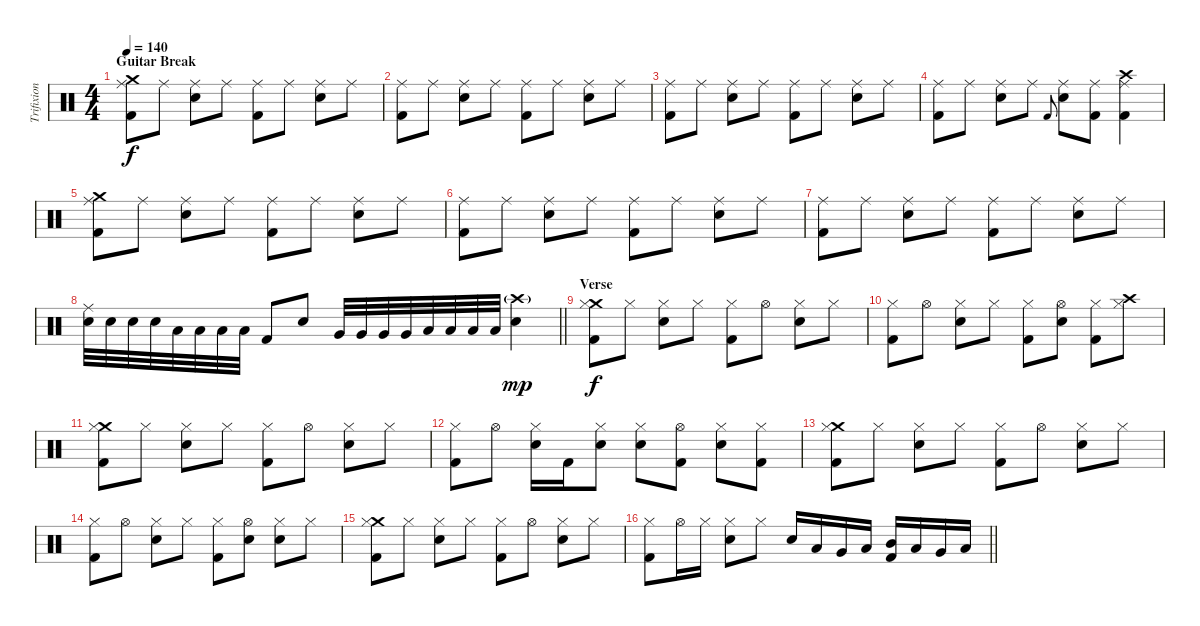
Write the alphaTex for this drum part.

\track ("Trifixion of the Horned King" "Trifixion ") {instrument percussion}
\staff {score}
\articulation defaults
\ts (4 4)
\section ("" "Guitar Break")
\tempo 140
\clef neutral
\ks c
("Crash medium (hit)" "Ride (middle)" "Kick (hit) 2").8{dy f} "Ride (middle)".8 ("Ride (middle)" "Electric Snare (hit)").8 "Ride (middle)".8 ("Ride (middle)" "Kick (hit) 2").8 "Ride (middle)".8 ("Ride (middle)" "Electric Snare (hit)").8 "Ride (middle)".8 |
("Ride (middle)" "Kick (hit) 2").8 "Ride (middle)".8 ("Ride (middle)" "Electric Snare (hit)").8 "Ride (middle)".8 ("Ride (middle)" "Kick (hit) 2").8 "Ride (middle)".8 ("Ride (middle)" "Electric Snare (hit)").8 "Ride (middle)".8 |
("Ride (middle)" "Kick (hit) 2").8 "Ride (middle)".8 ("Ride (middle)" "Electric Snare (hit)").8 "Ride (middle)".8 ("Ride (middle)" "Kick (hit) 2").8 "Ride (middle)".8 ("Ride (middle)" "Electric Snare (hit)").8 "Ride (middle)".8 |
("Ride (middle)" "Kick (hit) 2").8 "Ride (middle)".8 ("Ride (middle)" "Electric Snare (hit)").8 "Ride (middle)".8 "Kick (hit) 2".8{gr onbeat} ("Ride (middle)" "Electric Snare (hit)").8 ("Ride (middle)" "Kick (hit) 2").8 ("Crash high (hit)" "Ride (middle)" "Kick (hit) 2").4 |
("Crash medium (hit)" "Ride (middle)" "Kick (hit) 2").8 "Ride (middle)".8 ("Ride (middle)" "Electric Snare (hit)").8 "Ride (middle)".8 ("Ride (middle)" "Kick (hit) 2").8 "Ride (middle)".8 ("Ride (middle)" "Electric Snare (hit)").8 "Ride (middle)".8 |
("Ride (middle)" "Kick (hit) 2").8 "Ride (middle)".8 ("Ride (middle)" "Electric Snare (hit)").8 "Ride (middle)".8 ("Ride (middle)" "Kick (hit) 2").8 "Ride (middle)".8 ("Ride (middle)" "Electric Snare (hit)").8 "Ride (middle)".8 |
("Ride (middle)" "Kick (hit) 2").8 "Ride (middle)".8 ("Ride (middle)" "Electric Snare (hit)").8 "Ride (middle)".8 ("Ride (middle)" "Kick (hit) 2").8 "Ride (middle)".8 ("Ride (middle)" "Electric Snare (hit)").8 "Ride (middle)".8 |
\barLineRight lightlight
("Ride (middle)" "Electric Snare (hit)").32 "Electric Snare (hit)".32 "Electric Snare (hit)".32 "Electric Snare (hit)".32 "Low Tom (hit)".32 "Low Tom (hit)".32 "Low Tom (hit)".32 "Low Tom (hit)".32 "Kick (hit) 2".8 "Electric Snare (hit)".8 "Very Low Tom (hit)".32 "Very Low Tom (hit)".32 "Very Low Tom (hit)".32 "Very Low Tom (hit)".32 "Low Floor Tom (hit)".32 "Low Floor Tom (hit)".32 "Low Floor Tom (hit)".32 "Low Floor Tom (hit)".32 ("Crash high (hit)"{g} "Electric Snare (hit)").4{dy mp} |
\section ("" "Verse")
("Crash medium (hit)" "Hi-Hat (closed)" "Kick (hit) 2").8{dy f} "Hi-Hat (closed)".8 ("Hi-Hat (closed)" "Electric Snare (hit)").8 "Hi-Hat (closed)".8 ("Hi-Hat (closed)" "Kick (hit) 2").8 "Hi-Hat (open)".8 ("Hi-Hat (closed)" "Electric Snare (hit)").8 "Hi-Hat (closed)".8 |
("Hi-Hat (closed)" "Kick (hit) 2").8 "Hi-Hat (open)".8 ("Hi-Hat (closed)" "Electric Snare (hit)").8 "Hi-Hat (closed)".8 ("Hi-Hat (closed)" "Kick (hit) 2").8 ("Hi-Hat (open)" "Electric Snare (hit)").8 ("Hi-Hat (closed)" "Kick (hit) 2").8 ("Crash high (hit)" "Hi-Hat (closed)").8 |
("Crash medium (hit)" "Hi-Hat (closed)" "Kick (hit) 2").8 "Hi-Hat (closed)".8 ("Hi-Hat (closed)" "Electric Snare (hit)").8 "Hi-Hat (closed)".8 ("Hi-Hat (closed)" "Kick (hit) 2").8 "Hi-Hat (open)".8 ("Hi-Hat (closed)" "Electric Snare (hit)").8 "Hi-Hat (closed)".8 |
("Hi-Hat (closed)" "Kick (hit) 2").8 "Hi-Hat (open)".8 ("Hi-Hat (closed)" "Electric Snare (hit)").16 "Kick (hit) 2".16 ("Hi-Hat (closed)" "Electric Snare (hit)").8 ("Hi-Hat (closed)" "Electric Snare (hit)").8 ("Hi-Hat (open)" "Kick (hit) 2").8 ("Hi-Hat (closed)" "Electric Snare (hit)").8 ("Hi-Hat (closed)" "Kick (hit) 2").8 |
("Crash medium (hit)" "Hi-Hat (closed)" "Kick (hit) 2").8 "Hi-Hat (closed)".8 ("Hi-Hat (closed)" "Electric Snare (hit)").8 "Hi-Hat (closed)".8 ("Hi-Hat (closed)" "Kick (hit) 2").8 "Hi-Hat (open)".8 ("Hi-Hat (closed)" "Electric Snare (hit)").8 "Hi-Hat (closed)".8 |
("Hi-Hat (closed)" "Kick (hit) 2").8 "Hi-Hat (open)".8 ("Hi-Hat (closed)" "Electric Snare (hit)").8 "Hi-Hat (closed)".8 ("Hi-Hat (closed)" "Kick (hit) 2").8 ("Hi-Hat (open)" "Electric Snare (hit)").8 ("Hi-Hat (closed)" "Electric Snare (hit)").8 "Hi-Hat (closed)".8 |
("Crash medium (hit)" "Hi-Hat (closed)" "Kick (hit) 2").8 "Hi-Hat (closed)".8 ("Hi-Hat (closed)" "Electric Snare (hit)").8 "Hi-Hat (closed)".8 ("Hi-Hat (closed)" "Kick (hit) 2").8 "Hi-Hat (open)".8 ("Hi-Hat (closed)" "Electric Snare (hit)").8 "Hi-Hat (closed)".8 |
\barLineRight lightlight
("Hi-Hat (closed)" "Kick (hit) 2").8 "Hi-Hat (open)".16 "Hi-Hat (closed)".16 ("Hi-Hat (closed)" "Electric Snare (hit)").8 "Hi-Hat (closed)".8 "Electric Snare (hit)".16 "Low Tom (hit)".16 "Very Low Tom (hit)".16 "Low Floor Tom (hit)".16 ("Mid Tom (hit)" "Kick (hit) 2").16 "Low Tom (hit)".16 "Very Low Tom (hit)".16 "Low Floor Tom (hit)".16
